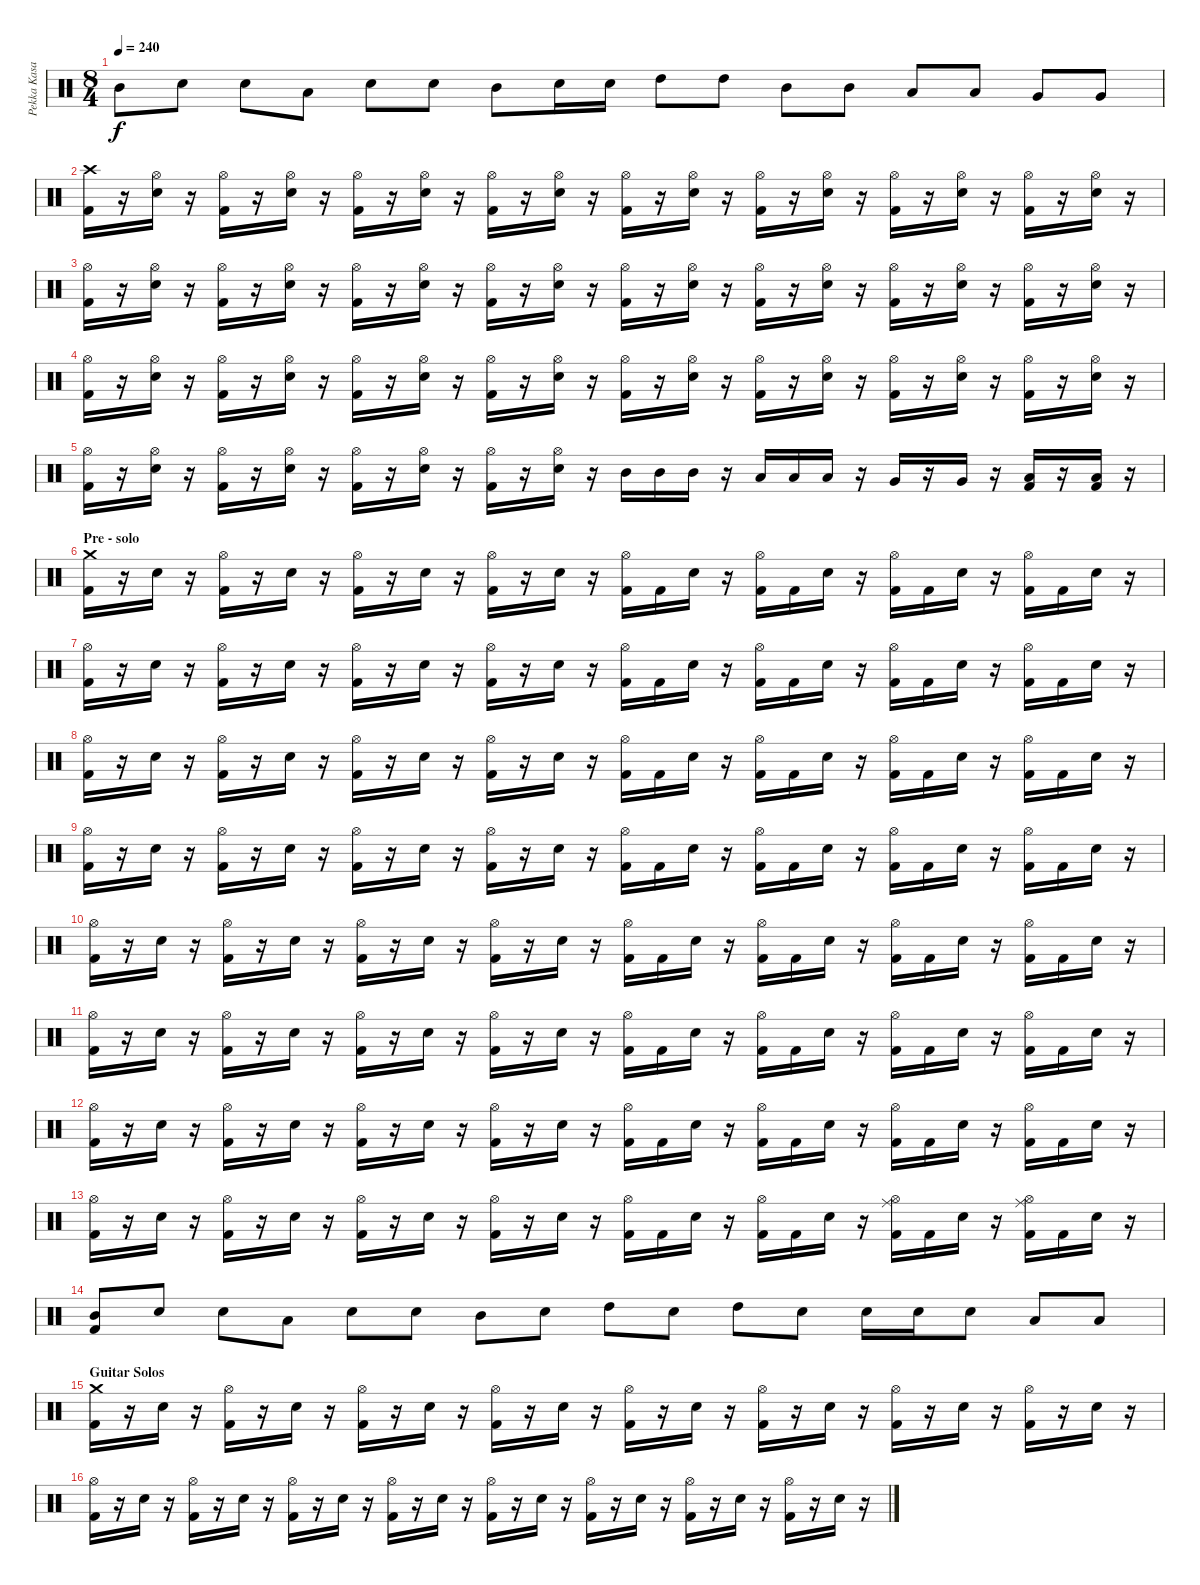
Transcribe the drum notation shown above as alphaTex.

\track ("Pekka Kasari" "Pekka Kasa") {instrument percussion}
\staff {score}
\articulation defaults
\ts (8 4)
\tempo 240
\clef neutral
\ks c "Mid Tom (hit)".8{dy f} "Electric Snare (hit)".8 "Electric Snare (hit)".8 "Low Tom (hit)".8 "Electric Snare (hit)".8 "Electric Snare (hit)".8 "Mid Tom (hit)".8 "Electric Snare (hit)".16 "Electric Snare (hit)".16 "High Tom (hit)".8 "High Tom (hit)".8 "Mid Tom (hit)".8 "Mid Tom (hit)".8 "Low Tom (hit)".8 "Low Tom (hit)".8 "Very Low Tom (hit)".8 "Very Low Tom (hit)".8
|
("Crash high (hit)" "Kick (hit) 2").16 r.16 ("Hi-Hat (open)" "Electric Snare (hit)").16 r.16 ("Hi-Hat (open)" "Kick (hit) 2").16 r.16 ("Hi-Hat (open)" "Electric Snare (hit)").16 r.16 ("Hi-Hat (open)" "Kick (hit) 2").16 r.16 ("Hi-Hat (open)" "Electric Snare (hit)").16 r.16 ("Hi-Hat (open)" "Kick (hit) 2").16 r.16 ("Hi-Hat (open)" "Electric Snare (hit)").16 r.16 ("Hi-Hat (open)" "Kick (hit) 2").16 r.16 ("Hi-Hat (open)" "Electric Snare (hit)").16 r.16 ("Hi-Hat (open)" "Kick (hit) 2").16 r.16 ("Hi-Hat (open)" "Electric Snare (hit)").16 r.16 ("Hi-Hat (open)" "Kick (hit) 2").16 r.16 ("Hi-Hat (open)" "Electric Snare (hit)").16 r.16 ("Hi-Hat (open)" "Kick (hit) 2").16 r.16 ("Hi-Hat (open)" "Electric Snare (hit)").16 r.16 |
("Hi-Hat (open)" "Kick (hit) 2").16 r.16 ("Hi-Hat (open)" "Electric Snare (hit)").16 r.16 ("Hi-Hat (open)" "Kick (hit) 2").16 r.16 ("Hi-Hat (open)" "Electric Snare (hit)").16 r.16 ("Hi-Hat (open)" "Kick (hit) 2").16 r.16 ("Hi-Hat (open)" "Electric Snare (hit)").16 r.16 ("Hi-Hat (open)" "Kick (hit) 2").16 r.16 ("Hi-Hat (open)" "Electric Snare (hit)").16 r.16 ("Hi-Hat (open)" "Kick (hit) 2").16 r.16 ("Hi-Hat (open)" "Electric Snare (hit)").16 r.16 ("Hi-Hat (open)" "Kick (hit) 2").16 r.16 ("Hi-Hat (open)" "Electric Snare (hit)").16 r.16 ("Hi-Hat (open)" "Kick (hit) 2").16 r.16 ("Hi-Hat (open)" "Electric Snare (hit)").16 r.16 ("Hi-Hat (open)" "Kick (hit) 2").16 r.16 ("Hi-Hat (open)" "Electric Snare (hit)").16 r.16 |
("Hi-Hat (open)" "Kick (hit) 2").16 r.16 ("Hi-Hat (open)" "Electric Snare (hit)").16 r.16 ("Hi-Hat (open)" "Kick (hit) 2").16 r.16 ("Hi-Hat (open)" "Electric Snare (hit)").16 r.16 ("Hi-Hat (open)" "Kick (hit) 2").16 r.16 ("Hi-Hat (open)" "Electric Snare (hit)").16 r.16 ("Hi-Hat (open)" "Kick (hit) 2").16 r.16 ("Hi-Hat (open)" "Electric Snare (hit)").16 r.16 ("Hi-Hat (open)" "Kick (hit) 2").16 r.16 ("Hi-Hat (open)" "Electric Snare (hit)").16 r.16 ("Hi-Hat (open)" "Kick (hit) 2").16 r.16 ("Hi-Hat (open)" "Electric Snare (hit)").16 r.16 ("Hi-Hat (open)" "Kick (hit) 2").16 r.16 ("Hi-Hat (open)" "Electric Snare (hit)").16 r.16 ("Hi-Hat (open)" "Kick (hit) 2").16 r.16 ("Hi-Hat (open)" "Electric Snare (hit)").16 r.16 |
("Hi-Hat (open)" "Kick (hit) 2").16 r.16 ("Hi-Hat (open)" "Electric Snare (hit)").16 r.16 ("Hi-Hat (open)" "Kick (hit) 2").16 r.16 ("Hi-Hat (open)" "Electric Snare (hit)").16 r.16 ("Hi-Hat (open)" "Kick (hit) 2").16 r.16 ("Hi-Hat (open)" "Electric Snare (hit)").16 r.16 ("Hi-Hat (open)" "Kick (hit) 2").16 r.16 ("Hi-Hat (open)" "Electric Snare (hit)").16 r.16 "Mid Tom (hit)".16 "Mid Tom (hit)".16 "Mid Tom (hit)".16 r.16 "Low Tom (hit)".16 "Low Tom (hit)".16 "Low Tom (hit)".16 r.16 "Very Low Tom (hit)".16 r.16 "Very Low Tom (hit)".16 r.16 ("Low Floor Tom (hit)" "Kick (hit) 2").16 r.16 ("Low Floor Tom (hit)" "Kick (hit) 2").16 r.16 |
\section ("" "Pre - solo")
("Crash medium (hit)" "Kick (hit) 2").16 r.16 "Electric Snare (hit)".16 r.16 ("Hi-Hat (open)" "Kick (hit) 2").16 r.16 "Electric Snare (hit)".16 r.16 ("Hi-Hat (open)" "Kick (hit) 2").16 r.16 "Electric Snare (hit)".16 r.16 ("Hi-Hat (open)" "Kick (hit) 2").16 r.16 "Electric Snare (hit)".16 r.16 ("Hi-Hat (open)" "Kick (hit) 2").16 "Kick (hit) 2".16 "Electric Snare (hit)".16 r.16 ("Hi-Hat (open)" "Kick (hit) 2").16 "Kick (hit) 2".16 "Electric Snare (hit)".16 r.16 ("Hi-Hat (open)" "Kick (hit) 2").16 "Kick (hit) 2".16 "Electric Snare (hit)".16 r.16 ("Hi-Hat (open)" "Kick (hit) 2").16 "Kick (hit) 2".16 "Electric Snare (hit)".16 r.16 |
("Hi-Hat (open)" "Kick (hit) 2").16 r.16 "Electric Snare (hit)".16 r.16 ("Hi-Hat (open)" "Kick (hit) 2").16 r.16 "Electric Snare (hit)".16 r.16 ("Hi-Hat (open)" "Kick (hit) 2").16 r.16 "Electric Snare (hit)".16 r.16 ("Hi-Hat (open)" "Kick (hit) 2").16 r.16 "Electric Snare (hit)".16 r.16 ("Hi-Hat (open)" "Kick (hit) 2").16 "Kick (hit) 2".16 "Electric Snare (hit)".16 r.16 ("Hi-Hat (open)" "Kick (hit) 2").16 "Kick (hit) 2".16 "Electric Snare (hit)".16 r.16 ("Hi-Hat (open)" "Kick (hit) 2").16 "Kick (hit) 2".16 "Electric Snare (hit)".16 r.16 ("Hi-Hat (open)" "Kick (hit) 2").16 "Kick (hit) 2".16 "Electric Snare (hit)".16 r.16 |
("Hi-Hat (open)" "Kick (hit) 2").16 r.16 "Electric Snare (hit)".16 r.16 ("Hi-Hat (open)" "Kick (hit) 2").16 r.16 "Electric Snare (hit)".16 r.16 ("Hi-Hat (open)" "Kick (hit) 2").16 r.16 "Electric Snare (hit)".16 r.16 ("Hi-Hat (open)" "Kick (hit) 2").16 r.16 "Electric Snare (hit)".16 r.16 ("Hi-Hat (open)" "Kick (hit) 2").16 "Kick (hit) 2".16 "Electric Snare (hit)".16 r.16 ("Hi-Hat (open)" "Kick (hit) 2").16 "Kick (hit) 2".16 "Electric Snare (hit)".16 r.16 ("Hi-Hat (open)" "Kick (hit) 2").16 "Kick (hit) 2".16 "Electric Snare (hit)".16 r.16 ("Hi-Hat (open)" "Kick (hit) 2").16 "Kick (hit) 2".16 "Electric Snare (hit)".16 r.16 |
("Hi-Hat (open)" "Kick (hit) 2").16 r.16 "Electric Snare (hit)".16 r.16 ("Hi-Hat (open)" "Kick (hit) 2").16 r.16 "Electric Snare (hit)".16 r.16 ("Hi-Hat (open)" "Kick (hit) 2").16 r.16 "Electric Snare (hit)".16 r.16 ("Hi-Hat (open)" "Kick (hit) 2").16 r.16 "Electric Snare (hit)".16 r.16 ("Hi-Hat (open)" "Kick (hit) 2").16 "Kick (hit) 2".16 "Electric Snare (hit)".16 r.16 ("Hi-Hat (open)" "Kick (hit) 2").16 "Kick (hit) 2".16 "Electric Snare (hit)".16 r.16 ("Hi-Hat (open)" "Kick (hit) 2").16 "Kick (hit) 2".16 "Electric Snare (hit)".16 r.16 ("Hi-Hat (open)" "Kick (hit) 2").16 "Kick (hit) 2".16 "Electric Snare (hit)".16 r.16 |
("Hi-Hat (open)" "Kick (hit) 2").16 r.16 "Electric Snare (hit)".16 r.16 ("Hi-Hat (open)" "Kick (hit) 2").16 r.16 "Electric Snare (hit)".16 r.16 ("Hi-Hat (open)" "Kick (hit) 2").16 r.16 "Electric Snare (hit)".16 r.16 ("Hi-Hat (open)" "Kick (hit) 2").16 r.16 "Electric Snare (hit)".16 r.16 ("Hi-Hat (open)" "Kick (hit) 2").16 "Kick (hit) 2".16 "Electric Snare (hit)".16 r.16 ("Hi-Hat (open)" "Kick (hit) 2").16 "Kick (hit) 2".16 "Electric Snare (hit)".16 r.16 ("Hi-Hat (open)" "Kick (hit) 2").16 "Kick (hit) 2".16 "Electric Snare (hit)".16 r.16 ("Hi-Hat (open)" "Kick (hit) 2").16 "Kick (hit) 2".16 "Electric Snare (hit)".16 r.16 |
("Hi-Hat (open)" "Kick (hit) 2").16 r.16 "Electric Snare (hit)".16 r.16 ("Hi-Hat (open)" "Kick (hit) 2").16 r.16 "Electric Snare (hit)".16 r.16 ("Hi-Hat (open)" "Kick (hit) 2").16 r.16 "Electric Snare (hit)".16 r.16 ("Hi-Hat (open)" "Kick (hit) 2").16 r.16 "Electric Snare (hit)".16 r.16 ("Hi-Hat (open)" "Kick (hit) 2").16 "Kick (hit) 2".16 "Electric Snare (hit)".16 r.16 ("Hi-Hat (open)" "Kick (hit) 2").16 "Kick (hit) 2".16 "Electric Snare (hit)".16 r.16 ("Hi-Hat (open)" "Kick (hit) 2").16 "Kick (hit) 2".16 "Electric Snare (hit)".16 r.16 ("Hi-Hat (open)" "Kick (hit) 2").16 "Kick (hit) 2".16 "Electric Snare (hit)".16 r.16 |
("Hi-Hat (open)" "Kick (hit) 2").16 r.16 "Electric Snare (hit)".16 r.16 ("Hi-Hat (open)" "Kick (hit) 2").16 r.16 "Electric Snare (hit)".16 r.16 ("Hi-Hat (open)" "Kick (hit) 2").16 r.16 "Electric Snare (hit)".16 r.16 ("Hi-Hat (open)" "Kick (hit) 2").16 r.16 "Electric Snare (hit)".16 r.16 ("Hi-Hat (open)" "Kick (hit) 2").16 "Kick (hit) 2".16 "Electric Snare (hit)".16 r.16 ("Hi-Hat (open)" "Kick (hit) 2").16 "Kick (hit) 2".16 "Electric Snare (hit)".16 r.16 ("Hi-Hat (open)" "Kick (hit) 2").16 "Kick (hit) 2".16 "Electric Snare (hit)".16 r.16 ("Hi-Hat (open)" "Kick (hit) 2").16 "Kick (hit) 2".16 "Electric Snare (hit)".16 r.16 |
("Hi-Hat (open)" "Kick (hit) 2").16 r.16 "Electric Snare (hit)".16 r.16 ("Hi-Hat (open)" "Kick (hit) 2").16 r.16 "Electric Snare (hit)".16 r.16 ("Hi-Hat (open)" "Kick (hit) 2").16 r.16 "Electric Snare (hit)".16 r.16 ("Hi-Hat (open)" "Kick (hit) 2").16 r.16 "Electric Snare (hit)".16 r.16 ("Hi-Hat (open)" "Kick (hit) 2").16 "Kick (hit) 2".16 "Electric Snare (hit)".16 r.16 ("Hi-Hat (open)" "Kick (hit) 2").16 "Kick (hit) 2".16 "Electric Snare (hit)".16 r.16 ("Hi-Hat (open)" "Ride (middle)" "Kick (hit) 2").16 "Kick (hit) 2".16 "Electric Snare (hit)".16 r.16 ("Hi-Hat (open)" "Ride (middle)" "Kick (hit) 2").16 "Kick (hit) 2".16 "Electric Snare (hit)".16 r.16 |
("Mid Tom (hit)" "Kick (hit) 2").8 "Electric Snare (hit)".8 "Electric Snare (hit)".8 "Low Tom (hit)".8 "Electric Snare (hit)".8 "Electric Snare (hit)".8 "Mid Tom (hit)".8 "Electric Snare (hit)".8 "High Tom (hit)".8 "Electric Snare (hit)".8 "High Tom (hit)".8 "Electric Snare (hit)".8 "Electric Snare (hit)".16 "Electric Snare (hit)".16 "Electric Snare (hit)".8 "Low Tom (hit)".8 "Low Tom (hit)".8 |
\section ("" "Guitar Solos")
("Crash medium (hit)" "Kick (hit) 2").16 r.16 "Electric Snare (hit)".16 r.16 ("Hi-Hat (open)" "Kick (hit) 2").16 r.16 "Electric Snare (hit)".16 r.16 ("Hi-Hat (open)" "Kick (hit) 2").16 r.16 "Electric Snare (hit)".16 r.16 ("Hi-Hat (open)" "Kick (hit) 2").16 r.16 "Electric Snare (hit)".16 r.16 ("Hi-Hat (open)" "Kick (hit) 2").16 r.16 "Electric Snare (hit)".16 r.16 ("Hi-Hat (open)" "Kick (hit) 2").16 r.16 "Electric Snare (hit)".16 r.16 ("Hi-Hat (open)" "Kick (hit) 2").16 r.16 "Electric Snare (hit)".16 r.16 ("Hi-Hat (open)" "Kick (hit) 2").16 r.16 "Electric Snare (hit)".16 r.16 |
("Hi-Hat (open)" "Kick (hit) 2").16 r.16 "Electric Snare (hit)".16 r.16 ("Hi-Hat (open)" "Kick (hit) 2").16 r.16 "Electric Snare (hit)".16 r.16 ("Hi-Hat (open)" "Kick (hit) 2").16 r.16 "Electric Snare (hit)".16 r.16 ("Hi-Hat (open)" "Kick (hit) 2").16 r.16 "Electric Snare (hit)".16 r.16 ("Hi-Hat (open)" "Kick (hit) 2").16 r.16 "Electric Snare (hit)".16 r.16 ("Hi-Hat (open)" "Kick (hit) 2").16 r.16 "Electric Snare (hit)".16 r.16 ("Hi-Hat (open)" "Kick (hit) 2").16 r.16 "Electric Snare (hit)".16 r.16 ("Hi-Hat (open)" "Kick (hit) 2").16 r.16 "Electric Snare (hit)".16 r.16
